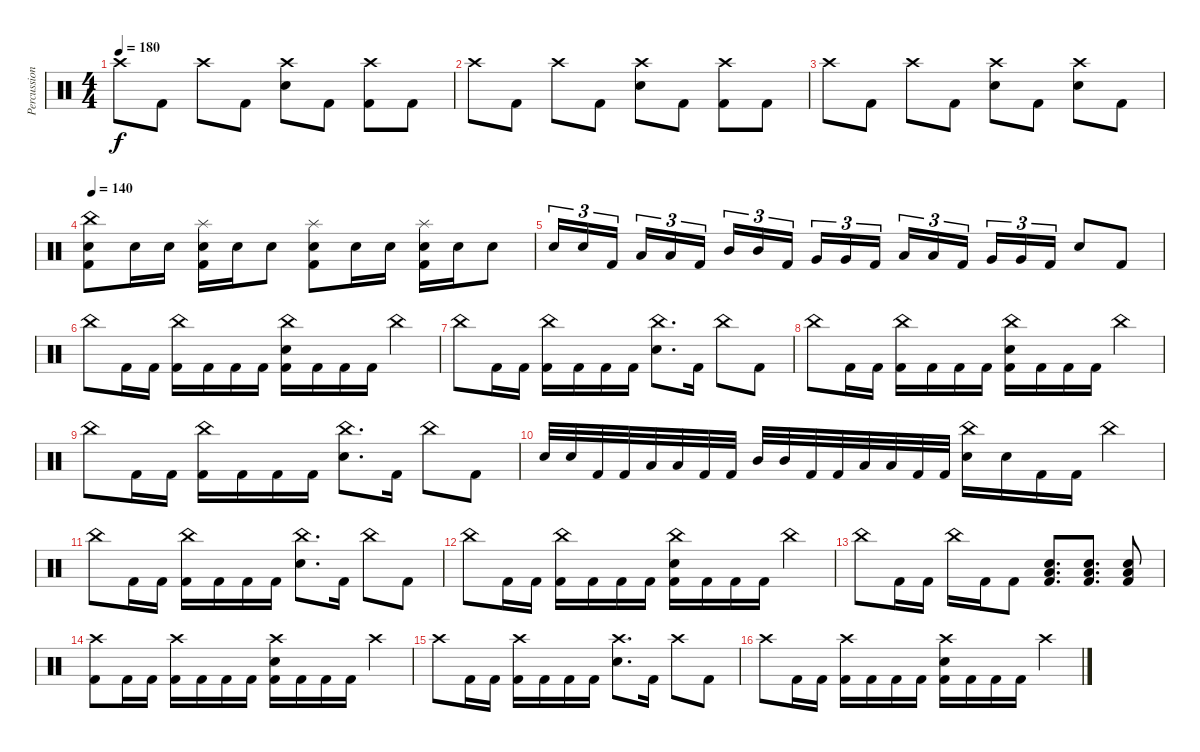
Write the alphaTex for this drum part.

\track ("Percussion" "Percussion") {instrument percussion}
\staff {score}
\articulation defaults
\ts (4 4)
\tempo 180
\clef neutral
\ks c "Crash high (hit)".8{dy f} "Kick (hit) 2".8 "Crash high (hit)".8 "Kick (hit) 2".8
("Crash high (hit)" "Electric Snare (hit)").8 "Kick (hit) 2".8 ("Crash high (hit)" "Kick (hit) 2").8 "Kick (hit) 2".8 |
"Crash high (hit)".8 "Kick (hit) 2".8 "Crash high (hit)".8 "Kick (hit) 2".8 ("Crash high (hit)" "Electric Snare (hit)").8 "Kick (hit) 2".8 ("Crash high (hit)" "Kick (hit) 2").8 "Kick (hit) 2".8 |
"Crash high (hit)".8 "Kick (hit) 2".8 "Crash high (hit)".8 "Kick (hit) 2".8 ("Crash high (hit)" "Electric Snare (hit)").8 "Kick (hit) 2".8 ("Crash high (hit)" "Electric Snare (hit)").8 "Kick (hit) 2".8 |
\tempo 140
("China (hit)" "Electric Snare (hit)" "Kick (hit) 2").8 "Electric Snare (hit)".16 "Electric Snare (hit)".16 ("Splash (hit)" "Electric Snare (hit)" "Kick (hit) 2").16 "Electric Snare (hit)".16 "Electric Snare (hit)".8 ("Splash (hit)" "Electric Snare (hit)" "Kick (hit) 2").8 "Electric Snare (hit)".16 "Electric Snare (hit)".16 ("Splash (hit)" "Electric Snare (hit)" "Kick (hit) 2").16 "Electric Snare (hit)".16 "Electric Snare (hit)".8 |
"Electric Snare (hit)".16{tu (3 2)} "Electric Snare (hit)".16{tu (3 2)} "Kick (hit) 2".16{tu (3 2) beam splitsecondary} "Low Tom (hit)".16{tu (3 2)} "Low Tom (hit)".16{tu (3 2)} "Kick (hit) 2".16{tu (3 2)} "Mid Tom (hit)".16{tu (3 2)} "Mid Tom (hit)".16{tu (3 2)} "Kick (hit) 2".16{tu (3 2) beam splitsecondary} "Very Low Tom (hit)".16{tu (3 2)} "Very Low Tom (hit)".16{tu (3 2)} "Kick (hit) 2".16{tu (3 2)} "Low Tom (hit)".16{tu (3 2)} "Low Tom (hit)".16{tu (3 2)} "Kick (hit) 2".16{tu (3 2) beam splitsecondary} "Very Low Tom (hit)".16{tu (3 2)} "Very Low Tom (hit)".16{tu (3 2)} "Kick (hit) 2".16{tu (3 2)} "Electric Snare (hit)".8 "Kick (hit) 2".8 |
"China (hit)".8 "Kick (hit) 2".16 "Kick (hit) 2".16 ("China (hit)" "Kick (hit) 2").16 "Kick (hit) 2".16 "Kick (hit) 2".16 "Kick (hit) 2".16 ("China (hit)" "Electric Snare (hit)" "Kick (hit) 2").16 "Kick (hit) 2".16 "Kick (hit) 2".16 "Kick (hit) 2".16 "China (hit)".4 |
"China (hit)".8 "Kick (hit) 2".16 "Kick (hit) 2".16 ("China (hit)" "Kick (hit) 2").16 "Kick (hit) 2".16 "Kick (hit) 2".16 "Kick (hit) 2".16 ("China (hit)" "Electric Snare (hit)").8{d} "Kick (hit) 2".16 "China (hit)".8 "Kick (hit) 2".8 |
"China (hit)".8 "Kick (hit) 2".16 "Kick (hit) 2".16 ("China (hit)" "Kick (hit) 2").16 "Kick (hit) 2".16 "Kick (hit) 2".16 "Kick (hit) 2".16 ("China (hit)" "Electric Snare (hit)" "Kick (hit) 2").16 "Kick (hit) 2".16 "Kick (hit) 2".16 "Kick (hit) 2".16 "China (hit)".4 |
"China (hit)".8 "Kick (hit) 2".16 "Kick (hit) 2".16 ("China (hit)" "Kick (hit) 2").16 "Kick (hit) 2".16 "Kick (hit) 2".16 "Kick (hit) 2".16 ("China (hit)" "Electric Snare (hit)").8{d} "Kick (hit) 2".16 "China (hit)".8 "Kick (hit) 2".8 |
"Electric Snare (hit)".32 "Electric Snare (hit)".32 "Kick (hit) 2".32 "Kick (hit) 2".32 "Low Tom (hit)".32 "Low Tom (hit)".32 "Kick (hit) 2".32 "Kick (hit) 2".32 "Mid Tom (hit)".32 "Mid Tom (hit)".32 "Kick (hit) 2".32 "Kick (hit) 2".32 "Low Tom (hit)".32 "Low Tom (hit)".32 "Kick (hit) 2".32 "Kick (hit) 2".32 ("China (hit)" "Electric Snare (hit)").16 "Electric Snare (hit)".16 "Kick (hit) 2".16 "Kick (hit) 2".16 "China (hit)".4 |
"China (hit)".8 "Kick (hit) 2".16 "Kick (hit) 2".16 ("China (hit)" "Kick (hit) 2").16 "Kick (hit) 2".16 "Kick (hit) 2".16 "Kick (hit) 2".16 ("China (hit)" "Electric Snare (hit)").8{d} "Kick (hit) 2".16 "China (hit)".8 "Kick (hit) 2".8 |
"China (hit)".8 "Kick (hit) 2".16 "Kick (hit) 2".16 ("China (hit)" "Kick (hit) 2").16 "Kick (hit) 2".16 "Kick (hit) 2".16 "Kick (hit) 2".16 ("China (hit)" "Electric Snare (hit)" "Kick (hit) 2").16 "Kick (hit) 2".16 "Kick (hit) 2".16 "Kick (hit) 2".16 "China (hit)".4 |
"China (hit)".8 "Kick (hit) 2".16 "Kick (hit) 2".16 "China (hit)".16 "Kick (hit) 2".16 "Kick (hit) 2".8 ("Low Tom (hit)" "Electric Snare (hit)" "Kick (hit) 2").8{d} ("Low Tom (hit)" "Electric Snare (hit)" "Kick (hit) 2").8{d} ("Low Tom (hit)" "Electric Snare (hit)" "Kick (hit) 2").8 |
("Crash high (hit)" "Kick (hit) 2").8 "Kick (hit) 2".16 "Kick (hit) 2".16 ("Crash high (hit)" "Kick (hit) 2").16 "Kick (hit) 2".16 "Kick (hit) 2".16 "Kick (hit) 2".16 ("Crash high (hit)" "Electric Snare (hit)" "Kick (hit) 2").16 "Kick (hit) 2".16 "Kick (hit) 2".16 "Kick (hit) 2".16 "Crash high (hit)".4 |
"Crash high (hit)".8 "Kick (hit) 2".16 "Kick (hit) 2".16 ("Crash high (hit)" "Kick (hit) 2").16 "Kick (hit) 2".16 "Kick (hit) 2".16 "Kick (hit) 2".16 ("Crash high (hit)" "Electric Snare (hit)").8{d} "Kick (hit) 2".16 "Crash high (hit)".8 "Kick (hit) 2".8 |
"Crash high (hit)".8 "Kick (hit) 2".16 "Kick (hit) 2".16 ("Crash high (hit)" "Kick (hit) 2").16 "Kick (hit) 2".16 "Kick (hit) 2".16 "Kick (hit) 2".16 ("Crash high (hit)" "Electric Snare (hit)" "Kick (hit) 2").16 "Kick (hit) 2".16 "Kick (hit) 2".16 "Kick (hit) 2".16 "Crash high (hit)".4
